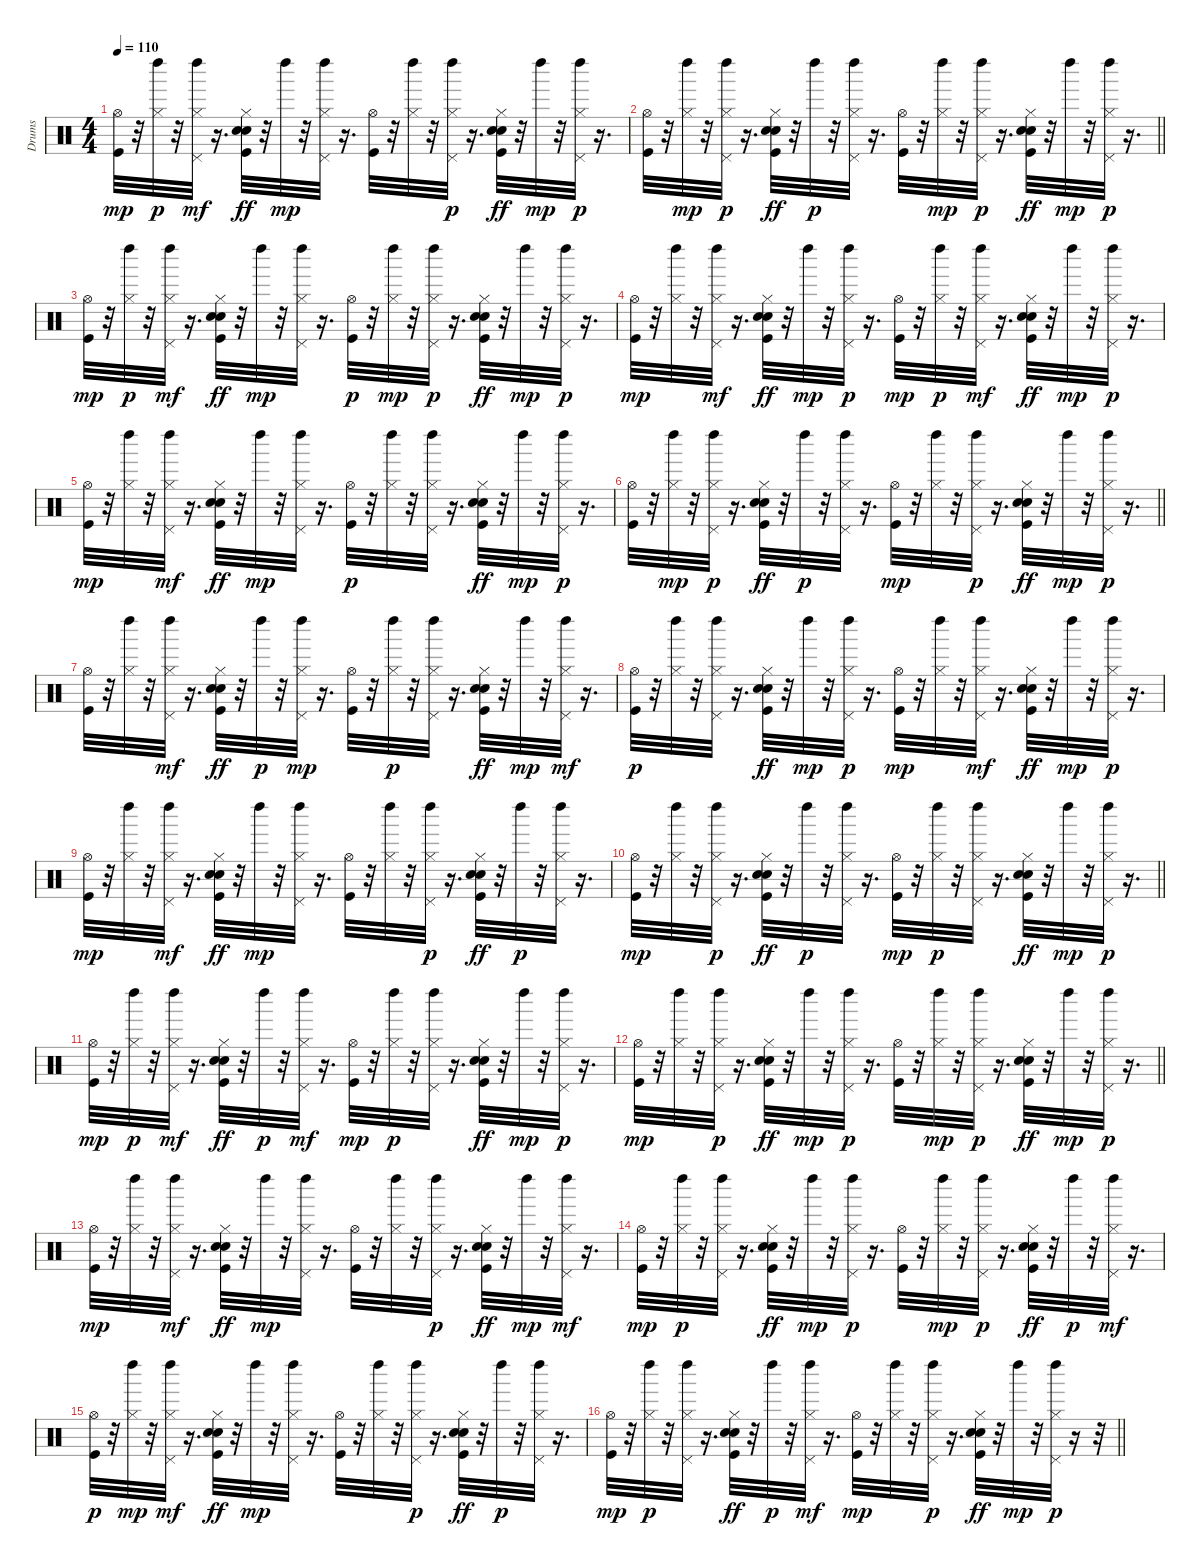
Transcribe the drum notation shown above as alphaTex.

\track ("Drums" "Drums") {instrument percussion}
\staff {score}
\articulation defaults
\ts (4 4)
\tempo 110
\clef neutral
\ks c
("Kick (hit)" "Hi-Hat (open)").32{dy mp} r.32 ("Hi-Hat (closed)" "Left Maraca (hit)").32{dy p} r.32 ("Hi-Hat (closed)" "Pedal Hi-Hat (hit)" "Left Maraca (hit)").32{dy mf} r.16{d} ("Kick (hit)" "Snare (hit) 2" "Hand Clap (hit)" "Hi-Hat (closed)").32{dy ff} r.32 "Left Maraca (hit)".32{dy mp} r.32 ("Hi-Hat (closed)" "Pedal Hi-Hat (hit)" "Left Maraca (hit)").32 r.16{d} ("Kick (hit)" "Hi-Hat (open)").32 r.32 ("Hi-Hat (closed)" "Left Maraca (hit)").32 r.32 ("Hi-Hat (closed)" "Pedal Hi-Hat (hit)" "Left Maraca (hit)").32{dy p} r.16{d} ("Kick (hit)" "Snare (hit) 2" "Hand Clap (hit)" "Hi-Hat (closed)").32{dy ff} r.32 "Left Maraca (hit)".32{dy mp} r.32 ("Hi-Hat (closed)" "Pedal Hi-Hat (hit)" "Left Maraca (hit)").32{dy p} r.16{d} |
\barLineRight lightlight
("Kick (hit)" "Hi-Hat (open)").32 r.32 ("Hi-Hat (closed)" "Left Maraca (hit)").32{dy mp} r.32 ("Hi-Hat (closed)" "Pedal Hi-Hat (hit)" "Left Maraca (hit)").32{dy p} r.16{d} ("Kick (hit)" "Snare (hit) 2" "Hand Clap (hit)" "Hi-Hat (closed)").32{dy ff} r.32 "Left Maraca (hit)".32{dy p} r.32 ("Hi-Hat (closed)" "Pedal Hi-Hat (hit)" "Left Maraca (hit)").32 r.16{d} ("Kick (hit)" "Hi-Hat (open)").32 r.32 ("Hi-Hat (closed)" "Left Maraca (hit)").32{dy mp} r.32 ("Hi-Hat (closed)" "Pedal Hi-Hat (hit)" "Left Maraca (hit)").32{dy p} r.16{d} ("Kick (hit)" "Snare (hit) 2" "Hand Clap (hit)" "Hi-Hat (closed)").32{dy ff} r.32 "Left Maraca (hit)".32{dy mp} r.32 ("Hi-Hat (closed)" "Pedal Hi-Hat (hit)" "Left Maraca (hit)").32{dy p} r.16{d} |
("Kick (hit)" "Hi-Hat (open)").32{dy mp} r.32 ("Hi-Hat (closed)" "Left Maraca (hit)").32{dy p} r.32 ("Hi-Hat (closed)" "Pedal Hi-Hat (hit)" "Left Maraca (hit)").32{dy mf} r.16{d} ("Kick (hit)" "Snare (hit) 2" "Hand Clap (hit)" "Hi-Hat (closed)").32{dy ff} r.32 "Left Maraca (hit)".32{dy mp} r.32 ("Hi-Hat (closed)" "Pedal Hi-Hat (hit)" "Left Maraca (hit)").32 r.16{d} ("Kick (hit)" "Hi-Hat (open)").32{dy p} r.32 ("Hi-Hat (closed)" "Left Maraca (hit)").32{dy mp} r.32 ("Hi-Hat (closed)" "Pedal Hi-Hat (hit)" "Left Maraca (hit)").32{dy p} r.16{d} ("Kick (hit)" "Snare (hit) 2" "Hand Clap (hit)" "Hi-Hat (closed)").32{dy ff} r.32 "Left Maraca (hit)".32{dy mp} r.32 ("Hi-Hat (closed)" "Pedal Hi-Hat (hit)" "Left Maraca (hit)").32{dy p} r.16{d} |
("Kick (hit)" "Hi-Hat (open)").32{dy mp} r.32 ("Hi-Hat (closed)" "Left Maraca (hit)").32 r.32 ("Hi-Hat (closed)" "Pedal Hi-Hat (hit)" "Left Maraca (hit)").32{dy mf} r.16{d} ("Kick (hit)" "Snare (hit) 2" "Hand Clap (hit)" "Hi-Hat (closed)").32{dy ff} r.32 "Left Maraca (hit)".32{dy mp} r.32 ("Hi-Hat (closed)" "Pedal Hi-Hat (hit)" "Left Maraca (hit)").32{dy p} r.16{d} ("Kick (hit)" "Hi-Hat (open)").32{dy mp} r.32 ("Hi-Hat (closed)" "Left Maraca (hit)").32{dy p} r.32 ("Hi-Hat (closed)" "Pedal Hi-Hat (hit)" "Left Maraca (hit)").32{dy mf} r.16{d} ("Kick (hit)" "Snare (hit) 2" "Hand Clap (hit)" "Hi-Hat (closed)").32{dy ff} r.32 "Left Maraca (hit)".32{dy mp} r.32 ("Hi-Hat (closed)" "Pedal Hi-Hat (hit)" "Left Maraca (hit)").32{dy p} r.16{d} |
("Kick (hit)" "Hi-Hat (open)").32{dy mp} r.32 ("Hi-Hat (closed)" "Left Maraca (hit)").32 r.32 ("Hi-Hat (closed)" "Pedal Hi-Hat (hit)" "Left Maraca (hit)").32{dy mf} r.16{d} ("Kick (hit)" "Snare (hit) 2" "Hand Clap (hit)" "Hi-Hat (closed)").32{dy ff} r.32 "Left Maraca (hit)".32{dy mp} r.32 ("Hi-Hat (closed)" "Pedal Hi-Hat (hit)" "Left Maraca (hit)").32 r.16{d} ("Kick (hit)" "Hi-Hat (open)").32{dy p} r.32 ("Hi-Hat (closed)" "Left Maraca (hit)").32 r.32 ("Hi-Hat (closed)" "Pedal Hi-Hat (hit)" "Left Maraca (hit)").32 r.16{d} ("Kick (hit)" "Snare (hit) 2" "Hand Clap (hit)" "Hi-Hat (closed)").32{dy ff} r.32 "Left Maraca (hit)".32{dy mp} r.32 ("Hi-Hat (closed)" "Pedal Hi-Hat (hit)" "Left Maraca (hit)").32{dy p} r.16{d} |
\barLineRight lightlight
("Kick (hit)" "Hi-Hat (open)").32 r.32 ("Hi-Hat (closed)" "Left Maraca (hit)").32{dy mp} r.32 ("Hi-Hat (closed)" "Pedal Hi-Hat (hit)" "Left Maraca (hit)").32{dy p} r.16{d} ("Kick (hit)" "Snare (hit) 2" "Hand Clap (hit)" "Hi-Hat (closed)").32{dy ff} r.32 "Left Maraca (hit)".32{dy p} r.32 ("Hi-Hat (closed)" "Pedal Hi-Hat (hit)" "Left Maraca (hit)").32 r.16{d} ("Kick (hit)" "Hi-Hat (open)").32{dy mp} r.32 ("Hi-Hat (closed)" "Left Maraca (hit)").32 r.32 ("Hi-Hat (closed)" "Pedal Hi-Hat (hit)" "Left Maraca (hit)").32{dy p} r.16{d} ("Kick (hit)" "Snare (hit) 2" "Hand Clap (hit)" "Hi-Hat (closed)").32{dy ff} r.32 "Left Maraca (hit)".32{dy mp} r.32 ("Hi-Hat (closed)" "Pedal Hi-Hat (hit)" "Left Maraca (hit)").32{dy p} r.16{d} |
("Kick (hit)" "Hi-Hat (open)").32 r.32 ("Hi-Hat (closed)" "Left Maraca (hit)").32 r.32 ("Hi-Hat (closed)" "Pedal Hi-Hat (hit)" "Left Maraca (hit)").32{dy mf} r.16{d} ("Kick (hit)" "Snare (hit) 2" "Hand Clap (hit)" "Hi-Hat (closed)").32{dy ff} r.32 "Left Maraca (hit)".32{dy p} r.32 ("Hi-Hat (closed)" "Pedal Hi-Hat (hit)" "Left Maraca (hit)").32{dy mp} r.16{d} ("Kick (hit)" "Hi-Hat (open)").32 r.32 ("Hi-Hat (closed)" "Left Maraca (hit)").32{dy p} r.32 ("Hi-Hat (closed)" "Pedal Hi-Hat (hit)" "Left Maraca (hit)").32 r.16{d} ("Kick (hit)" "Snare (hit) 2" "Hand Clap (hit)" "Hi-Hat (closed)").32{dy ff} r.32 "Left Maraca (hit)".32{dy mp} r.32 ("Hi-Hat (closed)" "Pedal Hi-Hat (hit)" "Left Maraca (hit)").32{dy mf} r.16{d} |
("Kick (hit)" "Hi-Hat (open)").32{dy p} r.32 ("Hi-Hat (closed)" "Left Maraca (hit)").32 r.32 ("Hi-Hat (closed)" "Pedal Hi-Hat (hit)" "Left Maraca (hit)").32 r.16{d} ("Kick (hit)" "Snare (hit) 2" "Hand Clap (hit)" "Hi-Hat (closed)").32{dy ff} r.32 "Left Maraca (hit)".32{dy mp} r.32 ("Hi-Hat (closed)" "Pedal Hi-Hat (hit)" "Left Maraca (hit)").32{dy p} r.16{d} ("Kick (hit)" "Hi-Hat (open)").32{dy mp} r.32 ("Hi-Hat (closed)" "Left Maraca (hit)").32 r.32 ("Hi-Hat (closed)" "Pedal Hi-Hat (hit)" "Left Maraca (hit)").32{dy mf} r.16{d} ("Kick (hit)" "Snare (hit) 2" "Hand Clap (hit)" "Hi-Hat (closed)").32{dy ff} r.32 "Left Maraca (hit)".32{dy mp} r.32 ("Hi-Hat (closed)" "Pedal Hi-Hat (hit)" "Left Maraca (hit)").32{dy p} r.16{d} |
("Kick (hit)" "Hi-Hat (open)").32{dy mp} r.32 ("Hi-Hat (closed)" "Left Maraca (hit)").32 r.32 ("Hi-Hat (closed)" "Pedal Hi-Hat (hit)" "Left Maraca (hit)").32{dy mf} r.16{d} ("Kick (hit)" "Snare (hit) 2" "Hand Clap (hit)" "Hi-Hat (closed)").32{dy ff} r.32 "Left Maraca (hit)".32{dy mp} r.32 ("Hi-Hat (closed)" "Pedal Hi-Hat (hit)" "Left Maraca (hit)").32 r.16{d} ("Kick (hit)" "Hi-Hat (open)").32 r.32 ("Hi-Hat (closed)" "Left Maraca (hit)").32 r.32 ("Hi-Hat (closed)" "Pedal Hi-Hat (hit)" "Left Maraca (hit)").32{dy p} r.16{d} ("Kick (hit)" "Snare (hit) 2" "Hand Clap (hit)" "Hi-Hat (closed)").32{dy ff} r.32 "Left Maraca (hit)".32{dy p} r.32 ("Hi-Hat (closed)" "Pedal Hi-Hat (hit)" "Left Maraca (hit)").32 r.16{d} |
\barLineRight lightlight
("Kick (hit)" "Hi-Hat (open)").32{dy mp} r.32 ("Hi-Hat (closed)" "Left Maraca (hit)").32 r.32 ("Hi-Hat (closed)" "Pedal Hi-Hat (hit)" "Left Maraca (hit)").32{dy p} r.16{d} ("Kick (hit)" "Snare (hit) 2" "Hand Clap (hit)" "Hi-Hat (closed)").32{dy ff} r.32 "Left Maraca (hit)".32{dy p} r.32 ("Hi-Hat (closed)" "Pedal Hi-Hat (hit)" "Left Maraca (hit)").32 r.16{d} ("Kick (hit)" "Hi-Hat (open)").32{dy mp} r.32 ("Hi-Hat (closed)" "Left Maraca (hit)").32{dy p} r.32 ("Hi-Hat (closed)" "Pedal Hi-Hat (hit)" "Left Maraca (hit)").32 r.16{d} ("Kick (hit)" "Snare (hit) 2" "Hand Clap (hit)" "Hi-Hat (closed)").32{dy ff} r.32 "Left Maraca (hit)".32{dy mp} r.32 ("Hi-Hat (closed)" "Pedal Hi-Hat (hit)" "Left Maraca (hit)").32{dy p} r.16{d} |
("Kick (hit)" "Hi-Hat (open)").32{dy mp} r.32 ("Hi-Hat (closed)" "Left Maraca (hit)").32{dy p} r.32 ("Hi-Hat (closed)" "Pedal Hi-Hat (hit)" "Left Maraca (hit)").32{dy mf} r.16{d} ("Kick (hit)" "Snare (hit) 2" "Hand Clap (hit)" "Hi-Hat (closed)").32{dy ff} r.32 "Left Maraca (hit)".32{dy p} r.32 ("Hi-Hat (closed)" "Pedal Hi-Hat (hit)" "Left Maraca (hit)").32{dy mf} r.16{d} ("Kick (hit)" "Hi-Hat (open)").32{dy mp} r.32 ("Hi-Hat (closed)" "Left Maraca (hit)").32{dy p} r.32 ("Hi-Hat (closed)" "Pedal Hi-Hat (hit)" "Left Maraca (hit)").32 r.16{d} ("Kick (hit)" "Snare (hit) 2" "Hand Clap (hit)" "Hi-Hat (closed)").32{dy ff} r.32 "Left Maraca (hit)".32{dy mp} r.32 ("Hi-Hat (closed)" "Pedal Hi-Hat (hit)" "Left Maraca (hit)").32{dy p} r.16{d} |
\barLineRight lightlight
("Kick (hit)" "Hi-Hat (open)").32{dy mp} r.32 ("Hi-Hat (closed)" "Left Maraca (hit)").32 r.32 ("Hi-Hat (closed)" "Pedal Hi-Hat (hit)" "Left Maraca (hit)").32{dy p} r.16{d} ("Kick (hit)" "Snare (hit) 2" "Hand Clap (hit)" "Hi-Hat (closed)").32{dy ff} r.32 "Left Maraca (hit)".32{dy mp} r.32 ("Hi-Hat (closed)" "Pedal Hi-Hat (hit)" "Left Maraca (hit)").32{dy p} r.16{d} ("Kick (hit)" "Hi-Hat (open)").32 r.32 ("Hi-Hat (closed)" "Left Maraca (hit)").32{dy mp} r.32 ("Hi-Hat (closed)" "Pedal Hi-Hat (hit)" "Left Maraca (hit)").32{dy p} r.16{d} ("Kick (hit)" "Snare (hit) 2" "Hand Clap (hit)" "Hi-Hat (closed)").32{dy ff} r.32 "Left Maraca (hit)".32{dy mp} r.32 ("Hi-Hat (closed)" "Pedal Hi-Hat (hit)" "Left Maraca (hit)").32{dy p} r.16{d} |
("Kick (hit)" "Hi-Hat (open)").32{dy mp} r.32 ("Hi-Hat (closed)" "Left Maraca (hit)").32 r.32 ("Hi-Hat (closed)" "Pedal Hi-Hat (hit)" "Left Maraca (hit)").32{dy mf} r.16{d} ("Kick (hit)" "Snare (hit) 2" "Hand Clap (hit)" "Hi-Hat (closed)").32{dy ff} r.32 "Left Maraca (hit)".32{dy mp} r.32 ("Hi-Hat (closed)" "Pedal Hi-Hat (hit)" "Left Maraca (hit)").32 r.16{d} ("Kick (hit)" "Hi-Hat (open)").32 r.32 ("Hi-Hat (closed)" "Left Maraca (hit)").32 r.32 ("Hi-Hat (closed)" "Pedal Hi-Hat (hit)" "Left Maraca (hit)").32{dy p} r.16{d} ("Kick (hit)" "Snare (hit) 2" "Hand Clap (hit)" "Hi-Hat (closed)").32{dy ff} r.32 "Left Maraca (hit)".32{dy mp} r.32 ("Hi-Hat (closed)" "Pedal Hi-Hat (hit)" "Left Maraca (hit)").32{dy mf} r.16{d} |
("Kick (hit)" "Hi-Hat (open)").32{dy mp} r.32 ("Hi-Hat (closed)" "Left Maraca (hit)").32{dy p} r.32 ("Hi-Hat (closed)" "Pedal Hi-Hat (hit)" "Left Maraca (hit)").32 r.16{d} ("Kick (hit)" "Snare (hit) 2" "Hand Clap (hit)" "Hi-Hat (closed)").32{dy ff} r.32 "Left Maraca (hit)".32{dy mp} r.32 ("Hi-Hat (closed)" "Pedal Hi-Hat (hit)" "Left Maraca (hit)").32{dy p} r.16{d} ("Kick (hit)" "Hi-Hat (open)").32 r.32 ("Hi-Hat (closed)" "Left Maraca (hit)").32{dy mp} r.32 ("Hi-Hat (closed)" "Pedal Hi-Hat (hit)" "Left Maraca (hit)").32{dy p} r.16{d} ("Kick (hit)" "Snare (hit) 2" "Hand Clap (hit)" "Hi-Hat (closed)").32{dy ff} r.32 "Left Maraca (hit)".32{dy p} r.32 ("Hi-Hat (closed)" "Pedal Hi-Hat (hit)" "Left Maraca (hit)").32{dy mf} r.16{d} |
("Kick (hit)" "Hi-Hat (open)").32{dy p} r.32 ("Hi-Hat (closed)" "Left Maraca (hit)").32{dy mp} r.32 ("Hi-Hat (closed)" "Pedal Hi-Hat (hit)" "Left Maraca (hit)").32{dy mf} r.16{d} ("Kick (hit)" "Snare (hit) 2" "Hand Clap (hit)" "Hi-Hat (closed)").32{dy ff} r.32 "Left Maraca (hit)".32{dy mp} r.32 ("Hi-Hat (closed)" "Pedal Hi-Hat (hit)" "Left Maraca (hit)").32 r.16{d} ("Kick (hit)" "Hi-Hat (open)").32 r.32 ("Hi-Hat (closed)" "Left Maraca (hit)").32 r.32 ("Hi-Hat (closed)" "Pedal Hi-Hat (hit)" "Left Maraca (hit)").32{dy p} r.16{d} ("Kick (hit)" "Snare (hit) 2" "Hand Clap (hit)" "Hi-Hat (closed)").32{dy ff} r.32 "Left Maraca (hit)".32{dy p} r.32 ("Hi-Hat (closed)" "Pedal Hi-Hat (hit)" "Left Maraca (hit)").32 r.16{d} |
\barLineRight lightlight
("Kick (hit)" "Hi-Hat (open)").32{dy mp} r.32 ("Hi-Hat (closed)" "Left Maraca (hit)").32{dy p} r.32 ("Hi-Hat (closed)" "Pedal Hi-Hat (hit)" "Left Maraca (hit)").32 r.16{d} ("Kick (hit)" "Snare (hit) 2" "Hand Clap (hit)" "Hi-Hat (closed)").32{dy ff} r.32 "Left Maraca (hit)".32{dy p} r.32 ("Hi-Hat (closed)" "Pedal Hi-Hat (hit)" "Left Maraca (hit)").32{dy mf} r.16{d} ("Kick (hit)" "Hi-Hat (open)").32{dy mp} r.32 ("Hi-Hat (closed)" "Left Maraca (hit)").32 r.32 ("Hi-Hat (closed)" "Pedal Hi-Hat (hit)" "Left Maraca (hit)").32{dy p} r.16{d} ("Kick (hit)" "Snare (hit) 2" "Hand Clap (hit)" "Hi-Hat (closed)").32{dy ff} r.32 "Left Maraca (hit)".32{dy mp} r.32 ("Hi-Hat (closed)" "Pedal Hi-Hat (hit)" "Left Maraca (hit)").32{dy p} r.16 r.32
